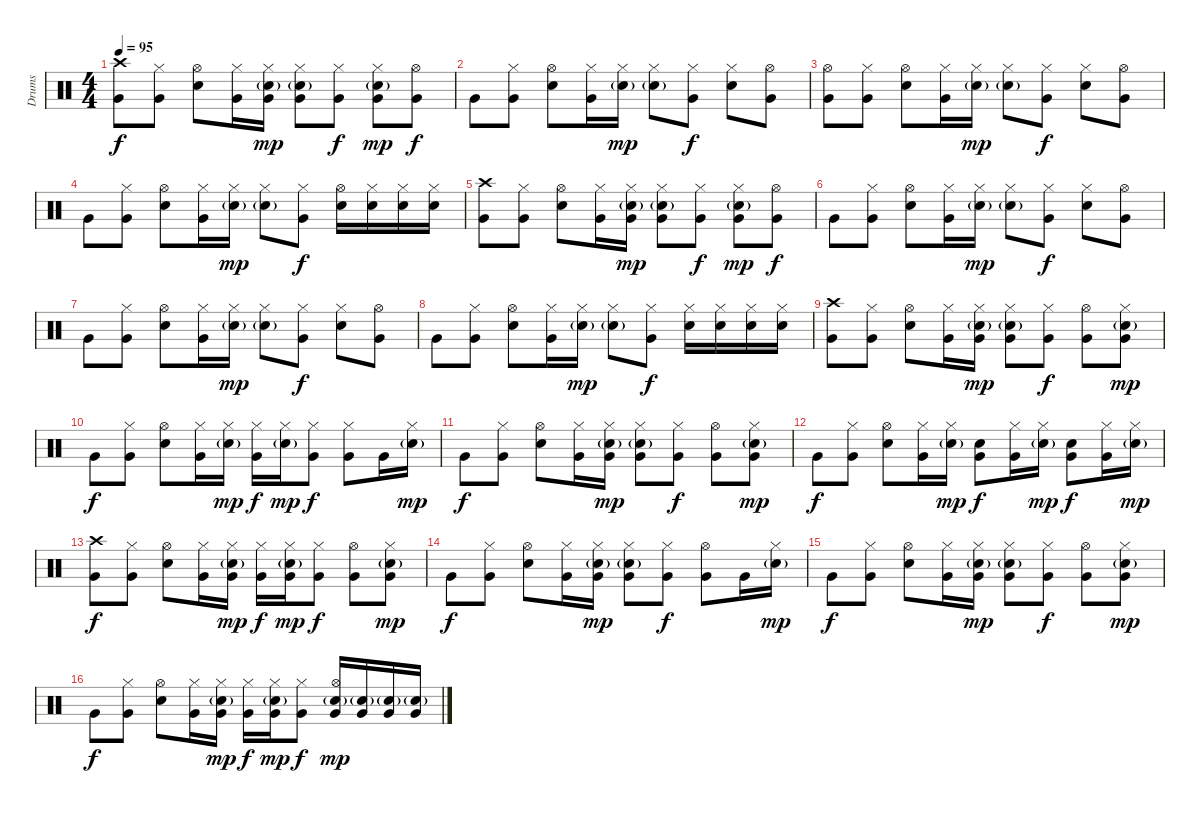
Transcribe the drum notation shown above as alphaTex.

\track ("Drums" "Drums") {instrument percussion}
\staff {score}
\articulation defaults
\ts (4 4)
\tempo 95
\clef neutral
\ks c
("Crash high (hit)" "Very Low Tom (hit)").8{dy f} ("Hi-Hat (closed)" "Very Low Tom (hit)").8 ("Hi-Hat (open)" "Electric Snare (hit)").8 ("Hi-Hat (closed)" "Very Low Tom (hit)").16 ("Hi-Hat (closed)" "Very Low Tom (hit)" "Electric Snare (hit)"{g}).16{dy mp} ("Hi-Hat (closed)" "Very Low Tom (hit)" "Electric Snare (hit)"{g}).8 ("Hi-Hat (closed)" "Very Low Tom (hit)").8{dy f} ("Hi-Hat (closed)" "Very Low Tom (hit)" "Electric Snare (hit)"{g}).8{dy mp} ("Hi-Hat (open)" "Very Low Tom (hit)").8{dy f} |
"Very Low Tom (hit)".8 ("Hi-Hat (closed)" "Very Low Tom (hit)").8 ("Hi-Hat (open)" "Electric Snare (hit)").8 ("Hi-Hat (closed)" "Very Low Tom (hit)").16 ("Hi-Hat (closed)" "Electric Snare (hit)"{g}).16{dy mp} ("Hi-Hat (closed)" "Electric Snare (hit)"{g}).8 ("Hi-Hat (closed)" "Very Low Tom (hit)").8{dy f} ("Hi-Hat (closed)" "Electric Snare (hit)").8 ("Hi-Hat (open)" "Very Low Tom (hit)").8 |
("Hi-Hat (open)" "Very Low Tom (hit)").8 ("Hi-Hat (closed)" "Very Low Tom (hit)").8 ("Hi-Hat (open)" "Electric Snare (hit)").8 ("Hi-Hat (closed)" "Very Low Tom (hit)").16 ("Hi-Hat (closed)" "Electric Snare (hit)"{g}).16{dy mp} ("Hi-Hat (closed)" "Electric Snare (hit)"{g}).8 ("Hi-Hat (closed)" "Very Low Tom (hit)").8{dy f} ("Hi-Hat (closed)" "Electric Snare (hit)").8 ("Hi-Hat (open)" "Very Low Tom (hit)").8 |
"Very Low Tom (hit)".8 ("Hi-Hat (closed)" "Very Low Tom (hit)").8 ("Hi-Hat (open)" "Electric Snare (hit)").8 ("Hi-Hat (closed)" "Very Low Tom (hit)").16 ("Hi-Hat (closed)" "Electric Snare (hit)"{g}).16{dy mp} ("Hi-Hat (closed)" "Electric Snare (hit)"{g}).8 ("Hi-Hat (closed)" "Very Low Tom (hit)").8{dy f} ("Hi-Hat (open)" "Electric Snare (hit)").16 ("Hi-Hat (closed)" "Electric Snare (hit)").16 ("Hi-Hat (closed)" "Electric Snare (hit)").16 ("Hi-Hat (closed)" "Electric Snare (hit)").16 |
("Crash high (hit)" "Very Low Tom (hit)").8 ("Hi-Hat (closed)" "Very Low Tom (hit)").8 ("Hi-Hat (open)" "Electric Snare (hit)").8 ("Hi-Hat (closed)" "Very Low Tom (hit)").16 ("Hi-Hat (closed)" "Very Low Tom (hit)" "Electric Snare (hit)"{g}).16{dy mp} ("Hi-Hat (closed)" "Very Low Tom (hit)" "Electric Snare (hit)"{g}).8 ("Hi-Hat (closed)" "Very Low Tom (hit)").8{dy f} ("Hi-Hat (closed)" "Very Low Tom (hit)" "Electric Snare (hit)"{g}).8{dy mp} ("Hi-Hat (open)" "Very Low Tom (hit)").8{dy f} |
"Very Low Tom (hit)".8 ("Hi-Hat (closed)" "Very Low Tom (hit)").8 ("Hi-Hat (open)" "Electric Snare (hit)").8 ("Hi-Hat (closed)" "Very Low Tom (hit)").16 ("Hi-Hat (closed)" "Electric Snare (hit)"{g}).16{dy mp} ("Hi-Hat (closed)" "Electric Snare (hit)"{g}).8 ("Hi-Hat (closed)" "Very Low Tom (hit)").8{dy f} ("Hi-Hat (closed)" "Electric Snare (hit)").8 ("Hi-Hat (open)" "Very Low Tom (hit)").8 |
"Very Low Tom (hit)".8 ("Hi-Hat (closed)" "Very Low Tom (hit)").8 ("Hi-Hat (open)" "Electric Snare (hit)").8 ("Hi-Hat (closed)" "Very Low Tom (hit)").16 ("Hi-Hat (closed)" "Electric Snare (hit)"{g}).16{dy mp} ("Hi-Hat (closed)" "Electric Snare (hit)"{g}).8 ("Hi-Hat (closed)" "Very Low Tom (hit)").8{dy f} ("Hi-Hat (closed)" "Electric Snare (hit)").8 ("Hi-Hat (open)" "Very Low Tom (hit)").8 |
"Very Low Tom (hit)".8 ("Hi-Hat (closed)" "Very Low Tom (hit)").8 ("Hi-Hat (open)" "Electric Snare (hit)").8 ("Hi-Hat (closed)" "Very Low Tom (hit)").16 ("Hi-Hat (closed)" "Electric Snare (hit)"{g}).16{dy mp} ("Hi-Hat (closed)" "Electric Snare (hit)"{g}).8 ("Hi-Hat (closed)" "Very Low Tom (hit)").8{dy f} ("Hi-Hat (closed)" "Electric Snare (hit)").16 ("Hi-Hat (closed)" "Electric Snare (hit)").16 ("Hi-Hat (closed)" "Electric Snare (hit)").16 ("Hi-Hat (closed)" "Electric Snare (hit)").16 |
("Crash high (hit)" "Very Low Tom (hit)").8 ("Hi-Hat (closed)" "Very Low Tom (hit)").8 ("Hi-Hat (open)" "Electric Snare (hit)").8 ("Hi-Hat (closed)" "Very Low Tom (hit)").16 ("Hi-Hat (closed)" "Very Low Tom (hit)" "Electric Snare (hit)"{g}).16{dy mp} ("Hi-Hat (closed)" "Very Low Tom (hit)" "Electric Snare (hit)"{g}).8 ("Hi-Hat (closed)" "Very Low Tom (hit)").8{dy f} ("Hi-Hat (open)" "Very Low Tom (hit)").8 ("Hi-Hat (closed)" "Very Low Tom (hit)" "Electric Snare (hit)"{g}).8{dy mp} |
"Very Low Tom (hit)".8{dy f} ("Hi-Hat (closed)" "Very Low Tom (hit)").8 ("Hi-Hat (open)" "Electric Snare (hit)").8 ("Hi-Hat (closed)" "Very Low Tom (hit)").16 ("Hi-Hat (closed)" "Electric Snare (hit)"{g}).16{dy mp} ("Hi-Hat (closed)" "Very Low Tom (hit)").16{dy f} ("Hi-Hat (closed)" "Electric Snare (hit)"{g}).16{dy mp} ("Hi-Hat (closed)" "Very Low Tom (hit)").8{dy f} ("Hi-Hat (closed)" "Very Low Tom (hit)").8 "Very Low Tom (hit)".16 ("Hi-Hat (closed)" "Electric Snare (hit)"{g}).16{dy mp} |
"Very Low Tom (hit)".8{dy f} ("Hi-Hat (closed)" "Very Low Tom (hit)").8 ("Hi-Hat (open)" "Electric Snare (hit)").8 ("Hi-Hat (closed)" "Very Low Tom (hit)").16 ("Hi-Hat (closed)" "Very Low Tom (hit)" "Electric Snare (hit)"{g}).16{dy mp} ("Hi-Hat (closed)" "Very Low Tom (hit)" "Electric Snare (hit)"{g}).8 ("Hi-Hat (closed)" "Very Low Tom (hit)").8{dy f} ("Hi-Hat (open)" "Very Low Tom (hit)").8 ("Hi-Hat (closed)" "Very Low Tom (hit)" "Electric Snare (hit)"{g}).8{dy mp} |
"Very Low Tom (hit)".8{dy f} ("Hi-Hat (closed)" "Very Low Tom (hit)").8 ("Hi-Hat (open)" "Electric Snare (hit)").8 ("Hi-Hat (closed)" "Very Low Tom (hit)").16 ("Hi-Hat (closed)" "Electric Snare (hit)"{g}).16{dy mp} ("Very Low Tom (hit)" "Electric Snare (hit)").8{dy f} ("Hi-Hat (closed)" "Very Low Tom (hit)").16 ("Hi-Hat (closed)" "Electric Snare (hit)"{g}).16{dy mp} ("Very Low Tom (hit)" "Electric Snare (hit)").8{dy f} ("Hi-Hat (closed)" "Very Low Tom (hit)").16 ("Hi-Hat (closed)" "Electric Snare (hit)"{g}).16{dy mp} |
("Crash high (hit)" "Very Low Tom (hit)").8{dy f} ("Hi-Hat (closed)" "Very Low Tom (hit)").8 ("Hi-Hat (open)" "Electric Snare (hit)").8 ("Hi-Hat (closed)" "Very Low Tom (hit)").16 ("Hi-Hat (closed)" "Very Low Tom (hit)" "Electric Snare (hit)"{g}).16{dy mp} ("Hi-Hat (closed)" "Very Low Tom (hit)").16{dy f} ("Hi-Hat (closed)" "Very Low Tom (hit)" "Electric Snare (hit)"{g}).16{dy mp} ("Hi-Hat (closed)" "Very Low Tom (hit)").8{dy f} ("Hi-Hat (open)" "Very Low Tom (hit)").8 ("Hi-Hat (closed)" "Very Low Tom (hit)" "Electric Snare (hit)"{g}).8{dy mp} |
"Very Low Tom (hit)".8{dy f} ("Hi-Hat (closed)" "Very Low Tom (hit)").8 ("Hi-Hat (open)" "Electric Snare (hit)").8 ("Hi-Hat (closed)" "Very Low Tom (hit)").16 ("Hi-Hat (closed)" "Very Low Tom (hit)" "Electric Snare (hit)"{g}).16{dy mp} ("Hi-Hat (closed)" "Very Low Tom (hit)" "Electric Snare (hit)"{g}).8 ("Hi-Hat (closed)" "Very Low Tom (hit)").8{dy f} ("Hi-Hat (open)" "Very Low Tom (hit)").8 "Very Low Tom (hit)".16 ("Hi-Hat (closed)" "Electric Snare (hit)"{g}).16{dy mp} |
"Very Low Tom (hit)".8{dy f} ("Hi-Hat (closed)" "Very Low Tom (hit)").8 ("Hi-Hat (open)" "Electric Snare (hit)").8 ("Hi-Hat (closed)" "Very Low Tom (hit)").16 ("Hi-Hat (closed)" "Very Low Tom (hit)" "Electric Snare (hit)"{g}).16{dy mp} ("Hi-Hat (closed)" "Very Low Tom (hit)" "Electric Snare (hit)"{g}).8 ("Hi-Hat (closed)" "Very Low Tom (hit)").8{dy f} ("Hi-Hat (open)" "Very Low Tom (hit)").8 ("Hi-Hat (closed)" "Very Low Tom (hit)" "Electric Snare (hit)"{g}).8{dy mp} |
"Very Low Tom (hit)".8{dy f} ("Hi-Hat (closed)" "Very Low Tom (hit)").8 ("Hi-Hat (open)" "Electric Snare (hit)").8 ("Hi-Hat (closed)" "Very Low Tom (hit)").16 ("Hi-Hat (closed)" "Very Low Tom (hit)" "Electric Snare (hit)"{g}).16{dy mp} ("Hi-Hat (closed)" "Very Low Tom (hit)").16{dy f} ("Hi-Hat (closed)" "Very Low Tom (hit)" "Electric Snare (hit)"{g}).16{dy mp} ("Hi-Hat (closed)" "Very Low Tom (hit)").8{dy f} ("Hi-Hat (open)" "Very Low Tom (hit)" "Electric Snare (hit)"{g}).16{dy mp} ("Very Low Tom (hit)" "Electric Snare (hit)"{g}).16 ("Very Low Tom (hit)" "Electric Snare (hit)"{g}).16 ("Very Low Tom (hit)" "Electric Snare (hit)"{g}).16
